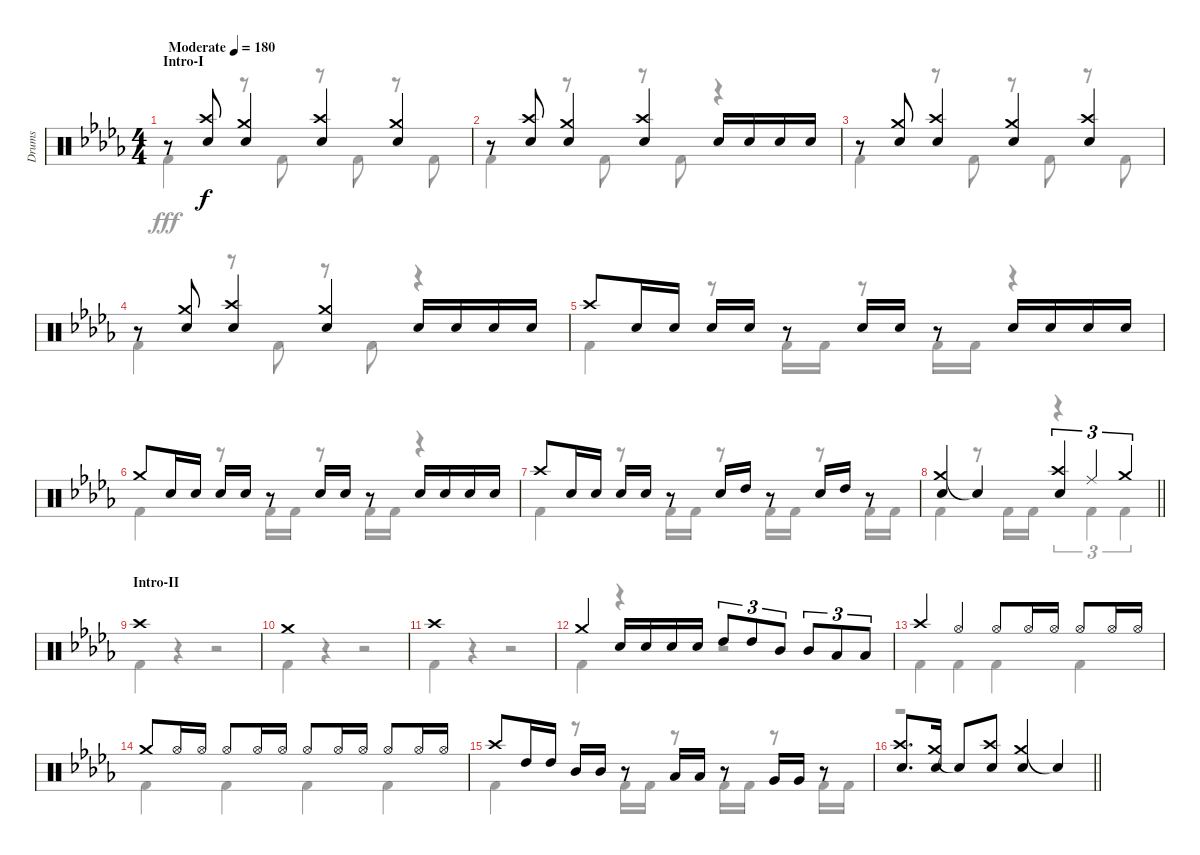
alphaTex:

\track ("Drums" "Drums") {instrument percussion}
\staff {score}
\articulation defaults
\voice
\ts (4 4)
\section ("" "Intro-I")
\tempo (180 "Moderate")
\clef neutral
\ks db
r.8{dy f} ("Crash high (hit)" "Snare (hit) 2").8 ("Crash medium (hit)" "Snare (hit) 2").4 ("Crash high (hit)" "Snare (hit) 2").4 ("Crash medium (hit)" "Snare (hit) 2").4 |
r.8 ("Crash high (hit)" "Snare (hit) 2").8 ("Crash medium (hit)" "Snare (hit) 2").4 ("Crash high (hit)" "Snare (hit) 2").4 "Snare (hit) 2".16 "Snare (hit) 2".16 "Snare (hit) 2".16 "Snare (hit) 2".16 |
r.8 ("Crash medium (hit)" "Snare (hit) 2").8 ("Crash high (hit)" "Snare (hit) 2").4 ("Crash medium (hit)" "Snare (hit) 2").4 ("Crash high (hit)" "Snare (hit) 2").4 |
r.8 ("Crash medium (hit)" "Snare (hit) 2").8 ("Crash high (hit)" "Snare (hit) 2").4 ("Crash medium (hit)" "Snare (hit) 2").4 "Snare (hit) 2".16 "Snare (hit) 2".16 "Snare (hit) 2".16 "Snare (hit) 2".16 |
"Crash high (hit)".8 "Snare (hit) 2".16 "Snare (hit) 2".16 "Snare (hit) 2".16 "Snare (hit) 2".16 r.8 "Snare (hit) 2".16 "Snare (hit) 2".16 r.8 "Snare (hit) 2".16 "Snare (hit) 2".16 "Snare (hit) 2".16 "Snare (hit) 2".16 |
"Crash medium (hit)".8 "Snare (hit) 2".16 "Snare (hit) 2".16 "Snare (hit) 2".16 "Snare (hit) 2".16 r.8 "Snare (hit) 2".16 "Snare (hit) 2".16 r.8 "Snare (hit) 2".16 "Snare (hit) 2".16 "Snare (hit) 2".16 "Snare (hit) 2".16 |
"Crash high (hit)".8 "Snare (hit) 2".16 "Snare (hit) 2".16 "Snare (hit) 2".16 "Snare (hit) 2".16 r.8 "Snare (hit) 2".16 "High Tom (hit)".16 r.8 "Snare (hit) 2".16 "High Tom (hit)".16 r.8 |
\barLineRight lightlight
("Crash medium (hit)" "Snare (hit) 2").4 "Snare (hit)"{t}.4 ("Crash high (hit)" "Snare (hit) 2").4{tu (3 2)} "Ride (middle)".4{tu (3 2)} "Crash medium (hit)".4{tu (3 2)} |
\section ("" "Intro-II")
"Crash high (hit)".1 |
"Crash medium (hit)".1 |
"Crash high (hit)".1 |
"Crash medium (hit)".4 "Snare (hit) 2".16 "Snare (hit) 2".16 "Snare (hit) 2".16 "Snare (hit) 2".16 "High Tom (hit)".8{tu (3 2)} "High Tom (hit)".8{tu (3 2)} "Mid Tom (hit)".8{tu (3 2)} "Mid Tom (hit)".8{tu (3 2)} "Low Tom (hit)".8{tu (3 2)} "Low Tom (hit)".8{tu (3 2)} |
"Crash high (hit)".4 "Hi-Hat (open)".4 "Hi-Hat (open)".8 "Hi-Hat (open)".16 "Hi-Hat (open)".16 "Hi-Hat (open)".8 "Hi-Hat (open)".16 "Hi-Hat (open)".16 |
"Crash medium (hit)".8 "Hi-Hat (open)".16 "Hi-Hat (open)".16 "Hi-Hat (open)".8 "Hi-Hat (open)".16 "Hi-Hat (open)".16 "Hi-Hat (open)".8 "Hi-Hat (open)".16 "Hi-Hat (open)".16 "Hi-Hat (open)".8 "Hi-Hat (open)".16 "Hi-Hat (open)".16 |
"Crash high (hit)".8 "High Tom (hit)".16 "High Tom (hit)".16 "Mid Tom (hit)".16 "Mid Tom (hit)".16 r.8 "Low Tom (hit)".16 "Low Tom (hit)".16 r.8 "Very Low Tom (hit)".16 "Very Low Tom (hit)".16 r.8 |
\barLineRight lightlight
("Crash high (hit)" "Snare (hit) 2").8{d} ("Crash medium (hit)" "Snare (hit) 2").16 "Snare (hit)"{t}.8 ("Crash high (hit)" "Snare (hit) 2").8 ("Crash medium (hit)" "Snare (hit) 2").4 "Snare (hit)"{t}.4
\voice
\clef neutral
\ottava regular
\simile none
\ks db "Kick (hit) 2".4{dy fff}
r.8 "Kick (hit) 2".8 r.8 "Kick (hit) 2".8 r.8 "Kick (hit) 2".8 |
"Kick (hit) 2".4 r.8 "Kick (hit) 2".8 r.8 "Kick (hit) 2".8 r.4 |
"Kick (hit) 2".4 r.8 "Kick (hit) 2".8 r.8 "Kick (hit) 2".8 r.8 "Kick (hit) 2".8 |
"Kick (hit) 2".4 r.8 "Kick (hit) 2".8 r.8 "Kick (hit) 2".8 r.4 |
"Kick (hit) 2".4 r.8 "Kick (hit) 2".16 "Kick (hit) 2".16 r.8 "Kick (hit) 2".16 "Kick (hit) 2".16 r.4 |
"Kick (hit) 2".4 r.8 "Kick (hit) 2".16 "Kick (hit) 2".16 r.8 "Kick (hit) 2".16 "Kick (hit) 2".16 r.4 |
"Kick (hit) 2".4 r.8 "Kick (hit) 2".16 "Kick (hit) 2".16 r.8 "Kick (hit) 2".16 "Kick (hit) 2".16 r.8 "Kick (hit) 2".16 "Kick (hit) 2".16 |
\barLineRight lightlight "Kick (hit) 2".4
r.8 "Kick (hit) 2".16 "Kick (hit) 2".16 r.4{tu (3 2)} "Kick (hit) 2".4{tu (3 2)} "Kick (hit) 2".4{tu (3 2)} |
"Kick (hit) 2".4 r.4 r.2 |
"Kick (hit) 2".4 r.4 r.2 |
"Kick (hit) 2".4 r.4 r.2 |
"Kick (hit) 2".4 r.4 r.2 |
"Kick (hit) 2".4 "Kick (hit) 2".4 "Kick (hit) 2".4 "Kick (hit) 2".4 |
"Kick (hit) 2".4 "Kick (hit) 2".4 "Kick (hit) 2".4 "Kick (hit) 2".4 |
"Kick (hit) 2".4 r.8 "Kick (hit) 2".16 "Kick (hit) 2".16 r.8 "Kick (hit) 2".16 "Kick (hit) 2".16 r.8 "Kick (hit) 2".16 "Kick (hit) 2".16 |
\barLineRight lightlight
r.1
